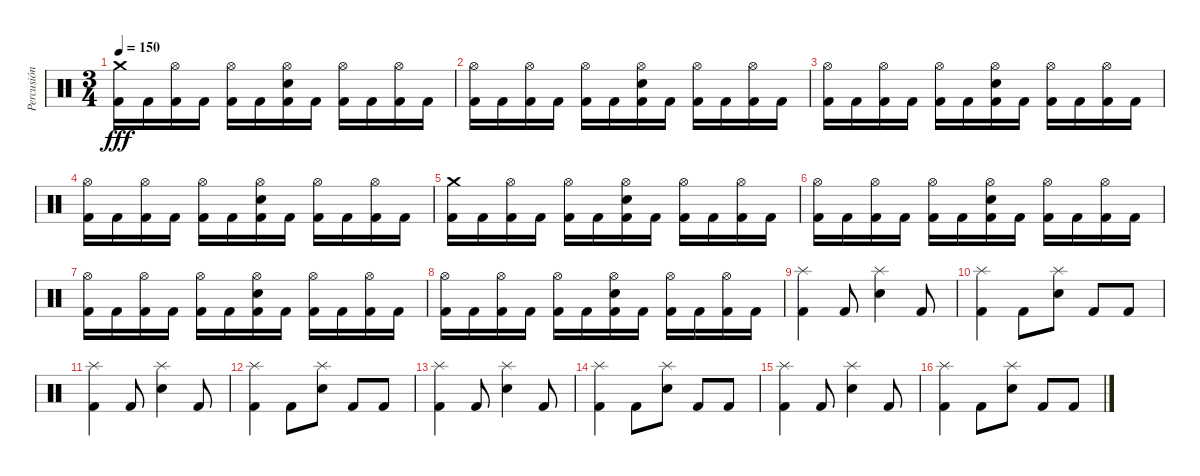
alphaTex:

\track ("Percusión" "Percusión") {instrument percussion}
\staff {score}
\articulation defaults
\ts (3 4)
\tempo 150
\clef neutral
\ks c
("Crash medium (hit)" "Kick (hit) 2").16{dy fff} "Kick (hit) 2".16 ("Hi-Hat (open)" "Kick (hit) 2").16 "Kick (hit) 2".16 ("Hi-Hat (open)" "Kick (hit) 2").16 "Kick (hit) 2".16 ("Hi-Hat (open)" "Snare (hit) 2" "Kick (hit) 2").16 "Kick (hit) 2".16 ("Hi-Hat (open)" "Kick (hit) 2").16 "Kick (hit) 2".16 ("Hi-Hat (open)" "Kick (hit) 2").16 "Kick (hit) 2".16 |
("Hi-Hat (open)" "Kick (hit) 2").16 "Kick (hit) 2".16 ("Hi-Hat (open)" "Kick (hit) 2").16 "Kick (hit) 2".16 ("Hi-Hat (open)" "Kick (hit) 2").16 "Kick (hit) 2".16 ("Hi-Hat (open)" "Snare (hit) 2" "Kick (hit) 2").16 "Kick (hit) 2".16 ("Hi-Hat (open)" "Kick (hit) 2").16 "Kick (hit) 2".16 ("Hi-Hat (open)" "Kick (hit) 2").16 "Kick (hit) 2".16 |
("Hi-Hat (open)" "Kick (hit) 2").16 "Kick (hit) 2".16 ("Hi-Hat (open)" "Kick (hit) 2").16 "Kick (hit) 2".16 ("Hi-Hat (open)" "Kick (hit) 2").16 "Kick (hit) 2".16 ("Hi-Hat (open)" "Snare (hit) 2" "Kick (hit) 2").16 "Kick (hit) 2".16 ("Hi-Hat (open)" "Kick (hit) 2").16 "Kick (hit) 2".16 ("Hi-Hat (open)" "Kick (hit) 2").16 "Kick (hit) 2".16 |
("Hi-Hat (open)" "Kick (hit) 2").16 "Kick (hit) 2".16 ("Hi-Hat (open)" "Kick (hit) 2").16 "Kick (hit) 2".16 ("Hi-Hat (open)" "Kick (hit) 2").16 "Kick (hit) 2".16 ("Hi-Hat (open)" "Snare (hit) 2" "Kick (hit) 2").16 "Kick (hit) 2".16 ("Hi-Hat (open)" "Kick (hit) 2").16 "Kick (hit) 2".16 ("Hi-Hat (open)" "Kick (hit) 2").16 "Kick (hit) 2".16 |
("Crash medium (hit)" "Kick (hit) 2").16 "Kick (hit) 2".16 ("Hi-Hat (open)" "Kick (hit) 2").16 "Kick (hit) 2".16 ("Hi-Hat (open)" "Kick (hit) 2").16 "Kick (hit) 2".16 ("Hi-Hat (open)" "Snare (hit) 2" "Kick (hit) 2").16 "Kick (hit) 2".16 ("Hi-Hat (open)" "Kick (hit) 2").16 "Kick (hit) 2".16 ("Hi-Hat (open)" "Kick (hit) 2").16 "Kick (hit) 2".16 |
("Hi-Hat (open)" "Kick (hit) 2").16 "Kick (hit) 2".16 ("Hi-Hat (open)" "Kick (hit) 2").16 "Kick (hit) 2".16 ("Hi-Hat (open)" "Kick (hit) 2").16 "Kick (hit) 2".16 ("Hi-Hat (open)" "Snare (hit) 2" "Kick (hit) 2").16 "Kick (hit) 2".16 ("Hi-Hat (open)" "Kick (hit) 2").16 "Kick (hit) 2".16 ("Hi-Hat (open)" "Kick (hit) 2").16 "Kick (hit) 2".16 |
("Hi-Hat (open)" "Kick (hit) 2").16 "Kick (hit) 2".16 ("Hi-Hat (open)" "Kick (hit) 2").16 "Kick (hit) 2".16 ("Hi-Hat (open)" "Kick (hit) 2").16 "Kick (hit) 2".16 ("Hi-Hat (open)" "Snare (hit) 2" "Kick (hit) 2").16 "Kick (hit) 2".16 ("Hi-Hat (open)" "Kick (hit) 2").16 "Kick (hit) 2".16 ("Hi-Hat (open)" "Kick (hit) 2").16 "Kick (hit) 2".16 |
("Hi-Hat (open)" "Kick (hit) 2").16 "Kick (hit) 2".16 ("Hi-Hat (open)" "Kick (hit) 2").16 "Kick (hit) 2".16 ("Hi-Hat (open)" "Kick (hit) 2").16 "Kick (hit) 2".16 ("Hi-Hat (open)" "Snare (hit) 2" "Kick (hit) 2").16 "Kick (hit) 2".16 ("Hi-Hat (open)" "Kick (hit) 2").16 "Kick (hit) 2".16 ("Hi-Hat (open)" "Kick (hit) 2").16 "Kick (hit) 2".16 |
("Splash (hit)" "Kick (hit) 2").4 "Kick (hit) 2".8 ("Splash (hit)" "Snare (hit) 2").4 "Kick (hit) 2".8 |
("Splash (hit)" "Kick (hit) 2").4 "Kick (hit) 2".8 ("Splash (hit)" "Snare (hit) 2").8 "Kick (hit) 2".8 "Kick (hit) 2".8 |
("Splash (hit)" "Kick (hit) 2").4 "Kick (hit) 2".8 ("Splash (hit)" "Snare (hit) 2").4 "Kick (hit) 2".8 |
("Splash (hit)" "Kick (hit) 2").4 "Kick (hit) 2".8 ("Splash (hit)" "Snare (hit) 2").8 "Kick (hit) 2".8 "Kick (hit) 2".8 |
("Splash (hit)" "Kick (hit) 2").4 "Kick (hit) 2".8 ("Splash (hit)" "Snare (hit) 2").4 "Kick (hit) 2".8 |
("Splash (hit)" "Kick (hit) 2").4 "Kick (hit) 2".8 ("Splash (hit)" "Snare (hit) 2").8 "Kick (hit) 2".8 "Kick (hit) 2".8 |
("Splash (hit)" "Kick (hit) 2").4 "Kick (hit) 2".8 ("Splash (hit)" "Snare (hit) 2").4 "Kick (hit) 2".8 |
("Splash (hit)" "Kick (hit) 2").4 "Kick (hit) 2".8 ("Splash (hit)" "Snare (hit) 2").8 "Kick (hit) 2".8 "Kick (hit) 2".8
